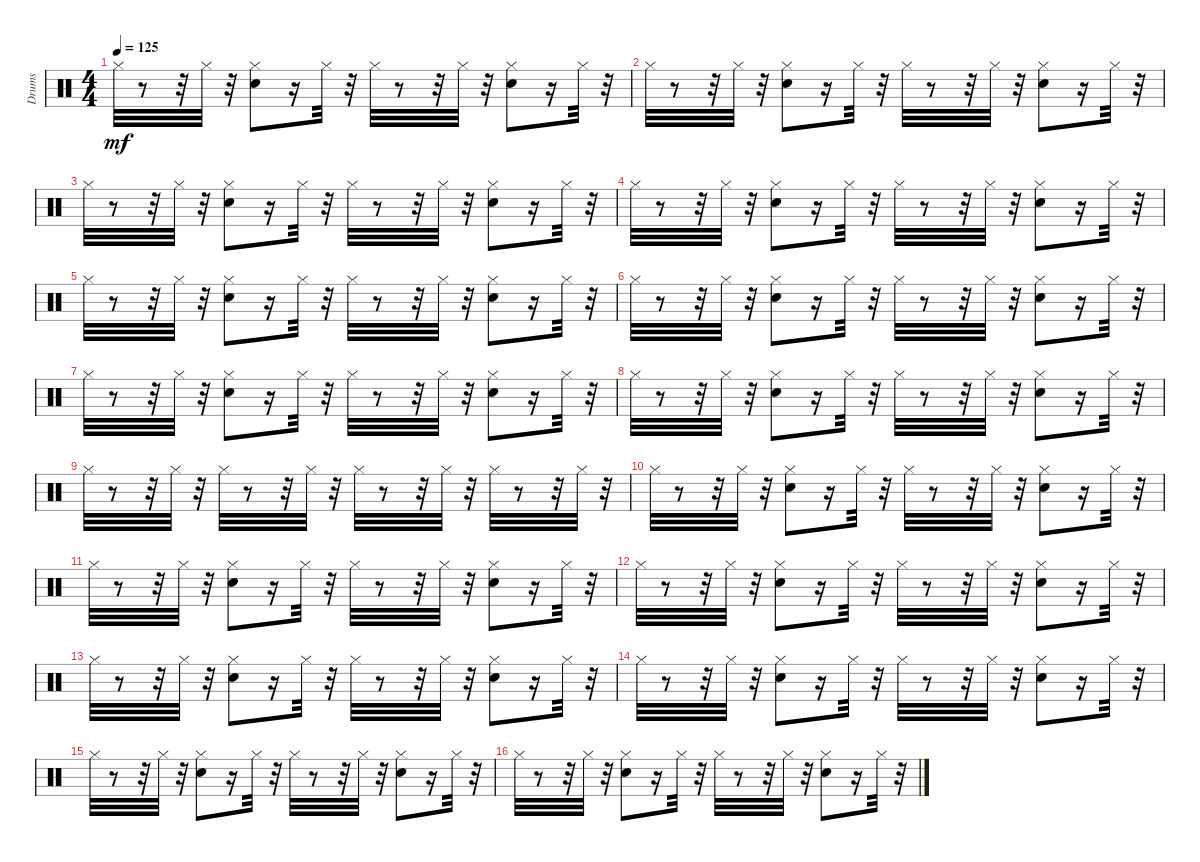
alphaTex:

\track ("Drums" "Drums") {instrument percussion}
\staff {score}
\articulation defaults
\ts (4 4)
\tempo 125
\clef neutral
\ks c "Hi-Hat (closed)".32{dy mf}
r.8 r.32 "Hi-Hat (closed)".32 r.32 ("Snare (hit) 2" "Hi-Hat (closed)").8 r.16 "Hi-Hat (closed)".32 r.32 "Hi-Hat (closed)".32 r.8 r.32 "Hi-Hat (closed)".32 r.32 ("Snare (hit) 2" "Hi-Hat (closed)").8 r.16 "Hi-Hat (closed)".32 r.32 |
"Hi-Hat (closed)".32 r.8 r.32 "Hi-Hat (closed)".32 r.32 ("Snare (hit) 2" "Hi-Hat (closed)").8 r.16 "Hi-Hat (closed)".32 r.32 "Hi-Hat (closed)".32 r.8 r.32 "Hi-Hat (closed)".32 r.32 ("Snare (hit) 2" "Hi-Hat (closed)").8 r.16 "Hi-Hat (closed)".32 r.32 |
"Hi-Hat (closed)".32 r.8 r.32 "Hi-Hat (closed)".32 r.32 ("Snare (hit) 2" "Hi-Hat (closed)").8 r.16 "Hi-Hat (closed)".32 r.32 "Hi-Hat (closed)".32 r.8 r.32 "Hi-Hat (closed)".32 r.32 ("Snare (hit) 2" "Hi-Hat (closed)").8 r.16 "Hi-Hat (closed)".32 r.32 |
"Hi-Hat (closed)".32 r.8 r.32 "Hi-Hat (closed)".32 r.32 ("Snare (hit) 2" "Hi-Hat (closed)").8 r.16 "Hi-Hat (closed)".32 r.32 "Hi-Hat (closed)".32 r.8 r.32 "Hi-Hat (closed)".32 r.32 ("Snare (hit) 2" "Hi-Hat (closed)").8 r.16 "Hi-Hat (closed)".32 r.32 |
"Hi-Hat (closed)".32 r.8 r.32 "Hi-Hat (closed)".32 r.32 ("Snare (hit) 2" "Hi-Hat (closed)").8 r.16 "Hi-Hat (closed)".32 r.32 "Hi-Hat (closed)".32 r.8 r.32 "Hi-Hat (closed)".32 r.32 ("Snare (hit) 2" "Hi-Hat (closed)").8 r.16 "Hi-Hat (closed)".32 r.32 |
"Hi-Hat (closed)".32 r.8 r.32 "Hi-Hat (closed)".32 r.32 ("Snare (hit) 2" "Hi-Hat (closed)").8 r.16 "Hi-Hat (closed)".32 r.32 "Hi-Hat (closed)".32 r.8 r.32 "Hi-Hat (closed)".32 r.32 ("Snare (hit) 2" "Hi-Hat (closed)").8 r.16 "Hi-Hat (closed)".32 r.32 |
"Hi-Hat (closed)".32 r.8 r.32 "Hi-Hat (closed)".32 r.32 ("Snare (hit) 2" "Hi-Hat (closed)").8 r.16 "Hi-Hat (closed)".32 r.32 "Hi-Hat (closed)".32 r.8 r.32 "Hi-Hat (closed)".32 r.32 ("Snare (hit) 2" "Hi-Hat (closed)").8 r.16 "Hi-Hat (closed)".32 r.32 |
"Hi-Hat (closed)".32 r.8 r.32 "Hi-Hat (closed)".32 r.32 ("Snare (hit) 2" "Hi-Hat (closed)").8 r.16 "Hi-Hat (closed)".32 r.32 "Hi-Hat (closed)".32 r.8 r.32 "Hi-Hat (closed)".32 r.32 ("Snare (hit) 2" "Hi-Hat (closed)").8 r.16 "Hi-Hat (closed)".32 r.32 |
"Hi-Hat (closed)".32 r.8 r.32 "Hi-Hat (closed)".32 r.32 "Hi-Hat (closed)".32 r.8 r.32 "Hi-Hat (closed)".32 r.32 "Hi-Hat (closed)".32 r.8 r.32 "Hi-Hat (closed)".32 r.32 "Hi-Hat (closed)".32 r.8 r.32 "Hi-Hat (closed)".32 r.32 |
"Hi-Hat (closed)".32 r.8 r.32 "Hi-Hat (closed)".32 r.32 ("Snare (hit) 2" "Hi-Hat (closed)").8 r.16 "Hi-Hat (closed)".32 r.32 "Hi-Hat (closed)".32 r.8 r.32 "Hi-Hat (closed)".32 r.32 ("Snare (hit) 2" "Hi-Hat (closed)").8 r.16 "Hi-Hat (closed)".32 r.32 |
"Hi-Hat (closed)".32 r.8 r.32 "Hi-Hat (closed)".32 r.32 ("Snare (hit) 2" "Hi-Hat (closed)").8 r.16 "Hi-Hat (closed)".32 r.32 "Hi-Hat (closed)".32 r.8 r.32 "Hi-Hat (closed)".32 r.32 ("Snare (hit) 2" "Hi-Hat (closed)").8 r.16 "Hi-Hat (closed)".32 r.32 |
"Hi-Hat (closed)".32 r.8 r.32 "Hi-Hat (closed)".32 r.32 ("Snare (hit) 2" "Hi-Hat (closed)").8 r.16 "Hi-Hat (closed)".32 r.32 "Hi-Hat (closed)".32 r.8 r.32 "Hi-Hat (closed)".32 r.32 ("Snare (hit) 2" "Hi-Hat (closed)").8 r.16 "Hi-Hat (closed)".32 r.32 |
"Hi-Hat (closed)".32 r.8 r.32 "Hi-Hat (closed)".32 r.32 ("Snare (hit) 2" "Hi-Hat (closed)").8 r.16 "Hi-Hat (closed)".32 r.32 "Hi-Hat (closed)".32 r.8 r.32 "Hi-Hat (closed)".32 r.32 ("Snare (hit) 2" "Hi-Hat (closed)").8 r.16 "Hi-Hat (closed)".32 r.32 |
"Hi-Hat (closed)".32 r.8 r.32 "Hi-Hat (closed)".32 r.32 ("Snare (hit) 2" "Hi-Hat (closed)").8 r.16 "Hi-Hat (closed)".32 r.32 "Hi-Hat (closed)".32 r.8 r.32 "Hi-Hat (closed)".32 r.32 ("Snare (hit) 2" "Hi-Hat (closed)").8 r.16 "Hi-Hat (closed)".32 r.32 |
"Hi-Hat (closed)".32 r.8 r.32 "Hi-Hat (closed)".32 r.32 ("Snare (hit) 2" "Hi-Hat (closed)").8 r.16 "Hi-Hat (closed)".32 r.32 "Hi-Hat (closed)".32 r.8 r.32 "Hi-Hat (closed)".32 r.32 ("Snare (hit) 2" "Hi-Hat (closed)").8 r.16 "Hi-Hat (closed)".32 r.32 |
"Hi-Hat (closed)".32 r.8 r.32 "Hi-Hat (closed)".32 r.32 ("Snare (hit) 2" "Hi-Hat (closed)").8 r.16 "Hi-Hat (closed)".32 r.32 "Hi-Hat (closed)".32 r.8 r.32 "Hi-Hat (closed)".32 r.32 ("Snare (hit) 2" "Hi-Hat (closed)").8 r.16 "Hi-Hat (closed)".32 r.32
